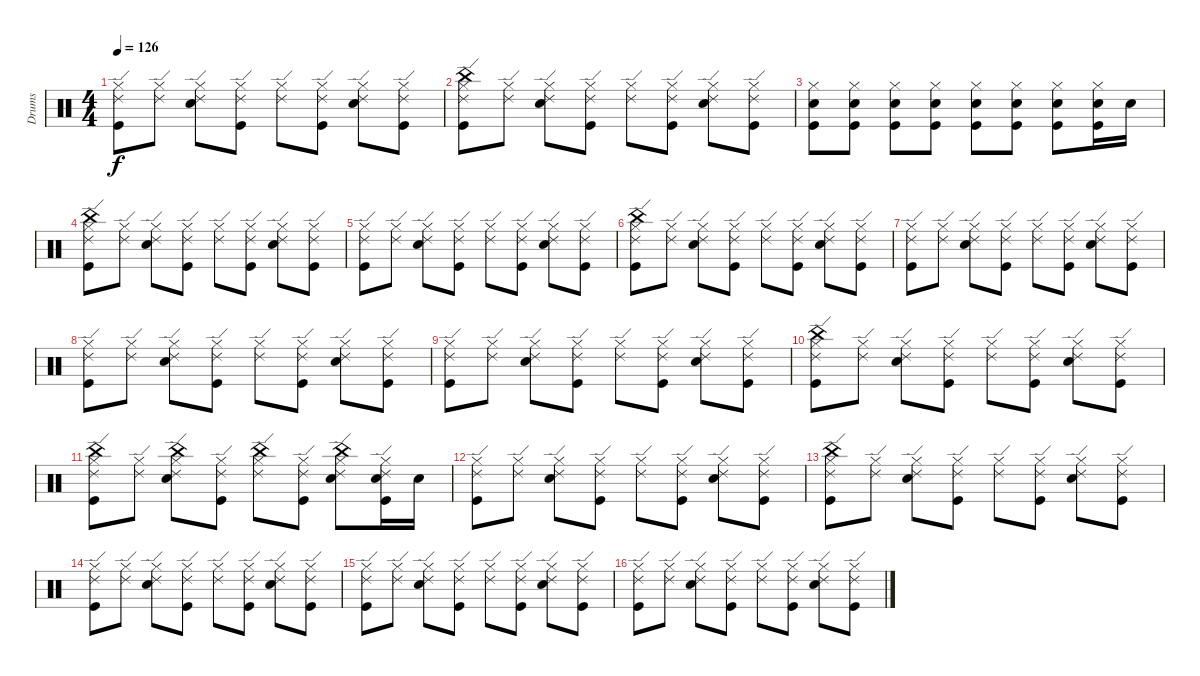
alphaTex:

\track ("Drums" "Drums") {instrument percussion}
\staff {score}
\articulation defaults
\ts (4 4)
\tempo 126
\clef neutral
\ks c
("Hi-Hat (closed)" "Ride (edge) 2" "Kick (hit)").8{dy f} ("Hi-Hat (closed)" "Ride (edge) 2").8 ("Hi-Hat (closed)" "Ride (edge) 2" "Electric Snare (hit)").8 ("Hi-Hat (closed)" "Ride (edge) 2" "Kick (hit)").8 ("Hi-Hat (closed)" "Ride (edge) 2").8 ("Hi-Hat (closed)" "Ride (edge) 2" "Kick (hit)").8 ("Hi-Hat (closed)" "Ride (edge) 2" "Electric Snare (hit)").8 ("Hi-Hat (closed)" "Ride (edge) 2" "Kick (hit)").8 |
("Hi-Hat (closed)" "China (hit)" "Ride (edge) 2" "Kick (hit)").8 ("Hi-Hat (closed)" "Ride (edge) 2").8 ("Hi-Hat (closed)" "Ride (edge) 2" "Electric Snare (hit)").8 ("Hi-Hat (closed)" "Ride (edge) 2" "Kick (hit)").8 ("Hi-Hat (closed)" "Ride (edge) 2").8 ("Hi-Hat (closed)" "Ride (edge) 2" "Kick (hit)").8 ("Hi-Hat (closed)" "Ride (edge) 2" "Electric Snare (hit)").8 ("Hi-Hat (closed)" "Ride (edge) 2" "Kick (hit)").8 |
("Hi-Hat (closed)" "Electric Snare (hit)" "Kick (hit)").8 ("Hi-Hat (closed)" "Electric Snare (hit)" "Kick (hit)").8 ("Hi-Hat (closed)" "Electric Snare (hit)" "Kick (hit)").8 ("Hi-Hat (closed)" "Electric Snare (hit)" "Kick (hit)").8 ("Hi-Hat (closed)" "Electric Snare (hit)" "Kick (hit)").8 ("Hi-Hat (closed)" "Electric Snare (hit)" "Kick (hit)").8 ("Hi-Hat (closed)" "Electric Snare (hit)" "Kick (hit)").8 ("Hi-Hat (closed)" "Electric Snare (hit)" "Kick (hit)").16 "Electric Snare (hit)".16 |
("Ride (edge) 2" "China (hit)" "Hi-Hat (closed)" "Kick (hit)").8 ("Ride (edge) 2" "Hi-Hat (closed)").8 ("Ride (edge) 2" "Hi-Hat (closed)" "Electric Snare (hit)").8 ("Ride (edge) 2" "Hi-Hat (closed)" "Kick (hit)").8 ("Ride (edge) 2" "Hi-Hat (closed)").8 ("Ride (edge) 2" "Hi-Hat (closed)" "Kick (hit)").8 ("Ride (edge) 2" "Hi-Hat (closed)" "Electric Snare (hit)").8 ("Ride (edge) 2" "Hi-Hat (closed)" "Kick (hit)").8 |
("Hi-Hat (closed)" "Ride (edge) 2" "Kick (hit)").8 ("Hi-Hat (closed)" "Ride (edge) 2").8 ("Hi-Hat (closed)" "Ride (edge) 2" "Electric Snare (hit)").8 ("Hi-Hat (closed)" "Ride (edge) 2" "Kick (hit)").8 ("Hi-Hat (closed)" "Ride (edge) 2").8 ("Hi-Hat (closed)" "Ride (edge) 2" "Kick (hit)").8 ("Hi-Hat (closed)" "Ride (edge) 2" "Electric Snare (hit)").8 ("Hi-Hat (closed)" "Ride (edge) 2" "Kick (hit)").8 |
("Hi-Hat (closed)" "China (hit)" "Ride (edge) 2" "Kick (hit)").8 ("Hi-Hat (closed)" "Ride (edge) 2").8 ("Hi-Hat (closed)" "Ride (edge) 2" "Electric Snare (hit)").8 ("Hi-Hat (closed)" "Ride (edge) 2" "Kick (hit)").8 ("Hi-Hat (closed)" "Ride (edge) 2").8 ("Hi-Hat (closed)" "Ride (edge) 2" "Kick (hit)").8 ("Hi-Hat (closed)" "Ride (edge) 2" "Electric Snare (hit)").8 ("Hi-Hat (closed)" "Ride (edge) 2" "Kick (hit)").8 |
("Hi-Hat (closed)" "Ride (edge) 2" "Kick (hit)").8 ("Hi-Hat (closed)" "Ride (edge) 2").8 ("Hi-Hat (closed)" "Ride (edge) 2" "Electric Snare (hit)").8 ("Hi-Hat (closed)" "Ride (edge) 2" "Kick (hit)").8 ("Hi-Hat (closed)" "Ride (edge) 2").8 ("Hi-Hat (closed)" "Ride (edge) 2" "Kick (hit)").8 ("Hi-Hat (closed)" "Ride (edge) 2" "Electric Snare (hit)").8 ("Hi-Hat (closed)" "Ride (edge) 2" "Kick (hit)").8 |
("Hi-Hat (closed)" "Ride (edge) 2" "Kick (hit)").8 ("Hi-Hat (closed)" "Ride (edge) 2").8 ("Hi-Hat (closed)" "Ride (edge) 2" "Electric Snare (hit)").8 ("Hi-Hat (closed)" "Ride (edge) 2" "Kick (hit)").8 ("Hi-Hat (closed)" "Ride (edge) 2").8 ("Hi-Hat (closed)" "Ride (edge) 2" "Kick (hit)").8 ("Hi-Hat (closed)" "Ride (edge) 2" "Electric Snare (hit)").8 ("Hi-Hat (closed)" "Ride (edge) 2" "Kick (hit)").8 |
("Hi-Hat (closed)" "Ride (edge) 2" "Kick (hit)").8 ("Hi-Hat (closed)" "Ride (edge) 2").8 ("Hi-Hat (closed)" "Ride (edge) 2" "Electric Snare (hit)").8 ("Hi-Hat (closed)" "Ride (edge) 2" "Kick (hit)").8 ("Hi-Hat (closed)" "Ride (edge) 2").8 ("Hi-Hat (closed)" "Ride (edge) 2" "Kick (hit)").8 ("Hi-Hat (closed)" "Ride (edge) 2" "Electric Snare (hit)").8 ("Hi-Hat (closed)" "Ride (edge) 2" "Kick (hit)").8 |
("Hi-Hat (closed)" "China (hit)" "Ride (edge) 2" "Kick (hit)").8 ("Hi-Hat (closed)" "Ride (edge) 2").8 ("Hi-Hat (closed)" "Ride (edge) 2" "Electric Snare (hit)").8 ("Hi-Hat (closed)" "Ride (edge) 2" "Kick (hit)").8 ("Hi-Hat (closed)" "Ride (edge) 2").8 ("Hi-Hat (closed)" "Ride (edge) 2" "Kick (hit)").8 ("Hi-Hat (closed)" "Ride (edge) 2" "Electric Snare (hit)").8 ("Hi-Hat (closed)" "Ride (edge) 2" "Kick (hit)").8 |
("Hi-Hat (closed)" "China (hit)" "Ride (edge) 2" "Kick (hit)").8 ("Hi-Hat (closed)" "Ride (edge) 2").8 ("China (hit)" "Hi-Hat (closed)" "Ride (edge) 2" "Electric Snare (hit)").8 ("Hi-Hat (closed)" "Ride (edge) 2" "Kick (hit)").8 ("China (hit)" "Hi-Hat (closed)" "Ride (edge) 2").8 ("Hi-Hat (closed)" "Ride (edge) 2" "Kick (hit)").8 ("China (hit)" "Hi-Hat (closed)" "Ride (edge) 2" "Electric Snare (hit)").8 ("Electric Snare (hit)" "Hi-Hat (closed)" "Ride (edge) 2" "Kick (hit)").16 "Electric Snare (hit)".16 |
("Hi-Hat (closed)" "Ride (edge) 2" "Kick (hit)").8 ("Hi-Hat (closed)" "Ride (edge) 2").8 ("Hi-Hat (closed)" "Ride (edge) 2" "Electric Snare (hit)").8 ("Hi-Hat (closed)" "Ride (edge) 2" "Kick (hit)").8 ("Hi-Hat (closed)" "Ride (edge) 2").8 ("Hi-Hat (closed)" "Ride (edge) 2" "Kick (hit)").8 ("Hi-Hat (closed)" "Ride (edge) 2" "Electric Snare (hit)").8 ("Hi-Hat (closed)" "Ride (edge) 2" "Kick (hit)").8 |
("Hi-Hat (closed)" "China (hit)" "Ride (edge) 2" "Kick (hit)").8 ("Hi-Hat (closed)" "Ride (edge) 2").8 ("Hi-Hat (closed)" "Ride (edge) 2" "Electric Snare (hit)").8 ("Hi-Hat (closed)" "Ride (edge) 2" "Kick (hit)").8 ("Hi-Hat (closed)" "Ride (edge) 2").8 ("Hi-Hat (closed)" "Ride (edge) 2" "Kick (hit)").8 ("Hi-Hat (closed)" "Ride (edge) 2" "Electric Snare (hit)").8 ("Hi-Hat (closed)" "Ride (edge) 2" "Kick (hit)").8 |
("Hi-Hat (closed)" "Ride (edge) 2" "Kick (hit)").8 ("Hi-Hat (closed)" "Ride (edge) 2").8 ("Hi-Hat (closed)" "Ride (edge) 2" "Electric Snare (hit)").8 ("Hi-Hat (closed)" "Ride (edge) 2" "Kick (hit)").8 ("Hi-Hat (closed)" "Ride (edge) 2").8 ("Hi-Hat (closed)" "Ride (edge) 2" "Kick (hit)").8 ("Hi-Hat (closed)" "Ride (edge) 2" "Electric Snare (hit)").8 ("Hi-Hat (closed)" "Ride (edge) 2" "Kick (hit)").8 |
("Hi-Hat (closed)" "Ride (edge) 2" "Kick (hit)").8 ("Hi-Hat (closed)" "Ride (edge) 2").8 ("Hi-Hat (closed)" "Ride (edge) 2" "Electric Snare (hit)").8 ("Hi-Hat (closed)" "Ride (edge) 2" "Kick (hit)").8 ("Hi-Hat (closed)" "Ride (edge) 2").8 ("Hi-Hat (closed)" "Ride (edge) 2" "Kick (hit)").8 ("Hi-Hat (closed)" "Ride (edge) 2" "Electric Snare (hit)").8 ("Hi-Hat (closed)" "Ride (edge) 2" "Kick (hit)").8 |
("Hi-Hat (closed)" "Ride (edge) 2" "Kick (hit)").8 ("Hi-Hat (closed)" "Ride (edge) 2").8 ("Hi-Hat (closed)" "Ride (edge) 2" "Electric Snare (hit)").8 ("Hi-Hat (closed)" "Ride (edge) 2" "Kick (hit)").8 ("Hi-Hat (closed)" "Ride (edge) 2").8 ("Hi-Hat (closed)" "Ride (edge) 2" "Kick (hit)").8 ("Hi-Hat (closed)" "Ride (edge) 2" "Electric Snare (hit)").8 ("Hi-Hat (closed)" "Ride (edge) 2" "Kick (hit)").8
